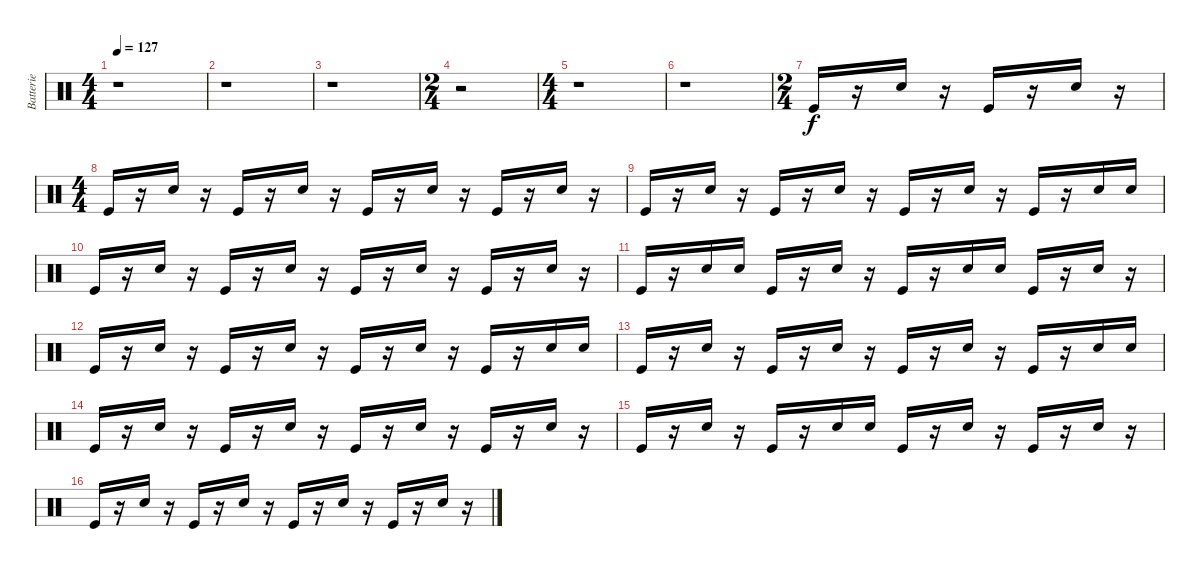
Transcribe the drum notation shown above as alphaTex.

\track ("Batterie" "Batterie") {instrument percussion}
\staff {score}
\articulation defaults
\ts (4 4)
\tempo 127
\clef neutral
\ks c
r.1{dy f} |
r.1 |
r.1 |
\ts (2 4)
r.2 |
\ts (4 4)
r.1 |
r.1 |
\ts (2 4)
"Kick (hit)".16 r.16 "Snare (hit) 2".16 r.16 "Kick (hit)".16 r.16 "Snare (hit) 2".16 r.16 |
\ts (4 4)
"Kick (hit)".16 r.16 "Snare (hit) 2".16 r.16 "Kick (hit)".16 r.16 "Snare (hit) 2".16 r.16 "Kick (hit)".16 r.16 "Snare (hit) 2".16 r.16 "Kick (hit)".16 r.16 "Snare (hit) 2".16 r.16 |
"Kick (hit)".16 r.16 "Snare (hit) 2".16 r.16 "Kick (hit)".16 r.16 "Snare (hit) 2".16 r.16 "Kick (hit)".16 r.16 "Snare (hit) 2".16 r.16 "Kick (hit)".16 r.16 "Snare (hit) 2".16 "Snare (hit) 2".16 |
"Kick (hit)".16 r.16 "Snare (hit) 2".16 r.16 "Kick (hit)".16 r.16 "Snare (hit) 2".16 r.16 "Kick (hit)".16 r.16 "Snare (hit) 2".16 r.16 "Kick (hit)".16 r.16 "Snare (hit) 2".16 r.16 |
"Kick (hit)".16 r.16 "Snare (hit) 2".16 "Snare (hit) 2".16 "Kick (hit)".16 r.16 "Snare (hit) 2".16 r.16 "Kick (hit)".16 r.16 "Snare (hit) 2".16 "Snare (hit) 2".16 "Kick (hit)".16 r.16 "Snare (hit) 2".16 r.16 |
"Kick (hit)".16 r.16 "Snare (hit) 2".16 r.16 "Kick (hit)".16 r.16 "Snare (hit) 2".16 r.16 "Kick (hit)".16 r.16 "Snare (hit) 2".16 r.16 "Kick (hit)".16 r.16 "Snare (hit) 2".16 "Snare (hit) 2".16 |
"Kick (hit)".16 r.16 "Snare (hit) 2".16 r.16 "Kick (hit)".16 r.16 "Snare (hit) 2".16 r.16 "Kick (hit)".16 r.16 "Snare (hit) 2".16 r.16 "Kick (hit)".16 r.16 "Snare (hit) 2".16 "Snare (hit) 2".16 |
"Kick (hit)".16 r.16 "Snare (hit) 2".16 r.16 "Kick (hit)".16 r.16 "Snare (hit) 2".16 r.16 "Kick (hit)".16 r.16 "Snare (hit) 2".16 r.16 "Kick (hit)".16 r.16 "Snare (hit) 2".16 r.16 |
"Kick (hit)".16 r.16 "Snare (hit) 2".16 r.16 "Kick (hit)".16 r.16 "Snare (hit) 2".16 "Snare (hit) 2".16 "Kick (hit)".16 r.16 "Snare (hit) 2".16 r.16 "Kick (hit)".16 r.16 "Snare (hit) 2".16 r.16 |
"Kick (hit)".16 r.16 "Snare (hit) 2".16 r.16 "Kick (hit)".16 r.16 "Snare (hit) 2".16 r.16 "Kick (hit)".16 r.16 "Snare (hit) 2".16 r.16 "Kick (hit)".16 r.16 "Snare (hit) 2".16 r.16
